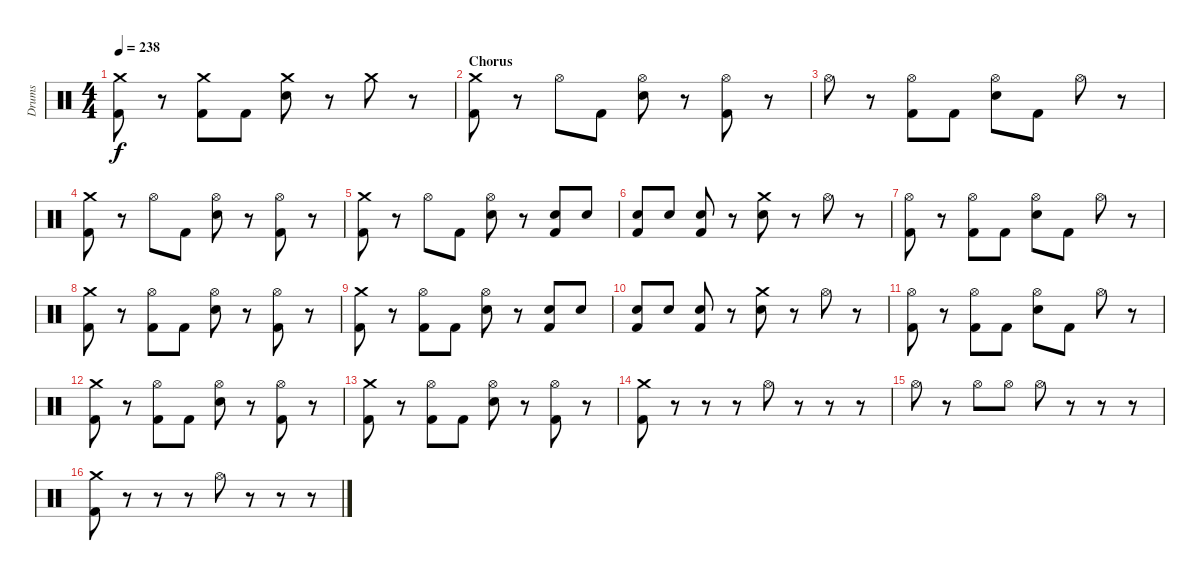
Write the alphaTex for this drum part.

\track ("Drums" "Drums") {instrument percussion}
\staff {score}
\articulation defaults
\ts (4 4)
\tempo 238
\clef neutral
\ks c
("Crash medium (hit)" "Kick (hit) 2").8{dy f} r.8 ("Crash medium (hit)" "Kick (hit) 2").8 "Kick (hit) 2".8 ("Crash medium (hit)" "Electric Snare (hit)").8 r.8 "Crash medium (hit)".8 r.8 |
\section ("" "Chorus")
("Crash medium (hit)" "Kick (hit) 2").8 r.8 "Hi-Hat (open)".8 "Kick (hit) 2".8 ("Hi-Hat (open)" "Electric Snare (hit)").8 r.8 ("Hi-Hat (open)" "Kick (hit) 2").8 r.8 |
"Hi-Hat (open)".8 r.8 ("Hi-Hat (open)" "Kick (hit) 2").8 "Kick (hit) 2".8 ("Hi-Hat (open)" "Electric Snare (hit)").8 "Kick (hit) 2".8 "Hi-Hat (open)".8 r.8 |
("Crash medium (hit)" "Kick (hit) 2").8 r.8 "Hi-Hat (open)".8 "Kick (hit) 2".8 ("Hi-Hat (open)" "Electric Snare (hit)").8 r.8 ("Hi-Hat (open)" "Kick (hit) 2").8 r.8 |
("Crash medium (hit)" "Kick (hit) 2").8 r.8 "Hi-Hat (open)".8 "Kick (hit) 2".8 ("Hi-Hat (open)" "Electric Snare (hit)").8 r.8 ("Electric Snare (hit)" "Kick (hit) 2").8 "Electric Snare (hit)".8 |
("Electric Snare (hit)" "Kick (hit) 2").8 "Electric Snare (hit)".8 ("Electric Snare (hit)" "Kick (hit) 2").8 r.8 ("Crash medium (hit)" "Electric Snare (hit)").8 r.8 "Hi-Hat (open)".8 r.8 |
("Hi-Hat (open)" "Kick (hit) 2").8 r.8 ("Hi-Hat (open)" "Kick (hit) 2").8 "Kick (hit) 2".8 ("Hi-Hat (open)" "Electric Snare (hit)").8 "Kick (hit) 2".8 "Hi-Hat (open)".8 r.8 |
("Crash medium (hit)" "Kick (hit) 2").8 r.8 ("Hi-Hat (open)" "Kick (hit) 2").8 "Kick (hit) 2".8 ("Hi-Hat (open)" "Electric Snare (hit)").8 r.8 ("Hi-Hat (open)" "Kick (hit) 2").8 r.8 |
("Crash medium (hit)" "Kick (hit) 2").8 r.8 ("Hi-Hat (open)" "Kick (hit) 2").8 "Kick (hit) 2".8 ("Hi-Hat (open)" "Electric Snare (hit)").8 r.8 ("Electric Snare (hit)" "Kick (hit) 2").8 "Electric Snare (hit)".8 |
("Electric Snare (hit)" "Kick (hit) 2").8 "Electric Snare (hit)".8 ("Electric Snare (hit)" "Kick (hit) 2").8 r.8 ("Crash medium (hit)" "Electric Snare (hit)").8 r.8 "Hi-Hat (open)".8 r.8 |
("Hi-Hat (open)" "Kick (hit) 2").8 r.8 ("Hi-Hat (open)" "Kick (hit) 2").8 "Kick (hit) 2".8 ("Hi-Hat (open)" "Electric Snare (hit)").8 "Kick (hit) 2".8 "Hi-Hat (open)".8 r.8 |
("Crash medium (hit)" "Kick (hit) 2").8 r.8 ("Hi-Hat (open)" "Kick (hit) 2").8 "Kick (hit) 2".8 ("Hi-Hat (open)" "Electric Snare (hit)").8 r.8 ("Hi-Hat (open)" "Kick (hit) 2").8 r.8 |
("Crash medium (hit)" "Kick (hit) 2").8 r.8 ("Hi-Hat (open)" "Kick (hit) 2").8 "Kick (hit) 2".8 ("Hi-Hat (open)" "Electric Snare (hit)").8 r.8 ("Hi-Hat (open)" "Kick (hit) 2").8 r.8 |
("Crash medium (hit)" "Kick (hit) 2").8 r.8 r.8 r.8 "Hi-Hat (open)".8 r.8 r.8 r.8 |
"Hi-Hat (open)".8 r.8 "Hi-Hat (open)".8 "Hi-Hat (open)".8 "Hi-Hat (open)".8 r.8 r.8 r.8 |
("Crash medium (hit)" "Kick (hit) 2").8 r.8 r.8 r.8 "Hi-Hat (open)".8 r.8 r.8 r.8
